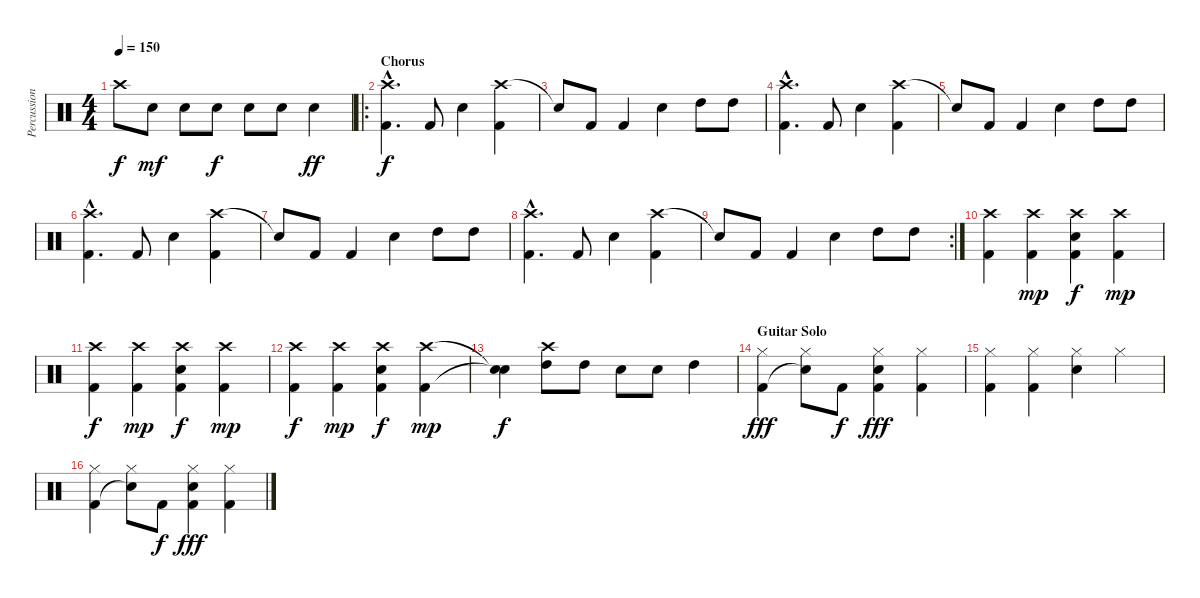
\track ("Percussion" "Percussion") {instrument percussion}
\staff {score}
\articulation defaults
\ts (4 4)
\tempo 150
\clef neutral
\ks c "Crash high (hit)"{t}.8{dy f} "Snare (hit) 2".8{dy mf} "Snare (hit) 2".8 "Snare (hit) 2".8{dy f} "Snare (hit) 2".8 "Snare (hit) 2".8 "Electric Snare (hit)".4{dy ff}
|
\ro
\section ("" "Chorus")
("Crash high (hit)"{hac} "Kick (hit) 2"{hac}).4{d dy f} "Kick (hit) 2".8 "Electric Snare (hit)".4 ("Crash high (hit)" "Kick (hit) 2").4 |
"Snare (hit)"{t}.8 "Kick (hit) 2".8 "Kick (hit) 2".4 "Electric Snare (hit)".4 "High Tom (hit)".8 "High Tom (hit)".8 |
("Crash high (hit)"{hac} "Kick (hit) 2"{hac}).4{d} "Kick (hit) 2".8 "Electric Snare (hit)".4 ("Crash high (hit)" "Kick (hit) 2").4 |
"Snare (hit)"{t}.8 "Kick (hit) 2".8 "Kick (hit) 2".4 "Electric Snare (hit)".4 "High Tom (hit)".8 "High Tom (hit)".8 |
("Crash high (hit)"{hac} "Kick (hit) 2"{hac}).4{d} "Kick (hit) 2".8 "Electric Snare (hit)".4 ("Crash high (hit)" "Kick (hit) 2").4 |
"Snare (hit)"{t}.8 "Kick (hit) 2".8 "Kick (hit) 2".4 "Electric Snare (hit)".4 "High Tom (hit)".8 "High Tom (hit)".8 |
("Crash high (hit)"{hac} "Kick (hit) 2"{hac}).4{d} "Kick (hit) 2".8 "Electric Snare (hit)".4 ("Crash high (hit)" "Kick (hit) 2").4 |
\rc 2 "Snare (hit)"{t}.8 "Kick (hit) 2".8 "Kick (hit) 2".4 "Electric Snare (hit)".4 "High Tom (hit)".8 "High Tom (hit)".8
|
("Crash high (hit)" "Kick (hit) 2").4 ("Crash high (hit)" "Kick (hit) 2").4{dy mp} ("Crash high (hit)" "Electric Snare (hit)" "Kick (hit) 2").4{dy f} ("Crash high (hit)" "Kick (hit) 2").4{dy mp} |
("Crash high (hit)" "Kick (hit) 2").4{dy f} ("Crash high (hit)" "Kick (hit) 2").4{dy mp} ("Crash high (hit)" "Electric Snare (hit)" "Kick (hit) 2").4{dy f} ("Crash high (hit)" "Kick (hit) 2").4{dy mp} |
("Crash high (hit)" "Kick (hit) 2").4{dy f} ("Crash high (hit)" "Kick (hit) 2").4{dy mp} ("Crash high (hit)" "Electric Snare (hit)" "Kick (hit) 2").4{dy f} ("Crash high (hit)" "Kick (hit) 2").4{dy mp} |
("Snare (hit)"{t} "Snare (hit)"{t}).4{dy f} ("Crash high (hit)" "High Tom (hit)").8 "High Tom (hit)".8 "Electric Snare (hit)".8 "Electric Snare (hit)".8 "High Tom (hit)".4 |
\section ("" "Guitar Solo")
("Hi-Hat (closed)" "Kick (hit) 2").4{dy fff} ("Hi-Hat (closed)" "Snare (hit)"{t}).8 "Kick (hit) 2".8{dy f} ("Electric Snare (hit)" "Hi-Hat (closed)" "Kick (hit) 2").4{dy fff} ("Hi-Hat (closed)" "Kick (hit) 2").4 |
("Hi-Hat (closed)" "Kick (hit) 2").4 ("Hi-Hat (closed)" "Kick (hit) 2").4 ("Electric Snare (hit)" "Hi-Hat (closed)").4 "Hi-Hat (closed)".4 |
("Hi-Hat (closed)" "Kick (hit) 2").4 ("Hi-Hat (closed)" "Snare (hit)"{t}).8 "Kick (hit) 2".8{dy f} ("Electric Snare (hit)" "Hi-Hat (closed)" "Kick (hit) 2").4{dy fff} ("Hi-Hat (closed)" "Kick (hit) 2").4
